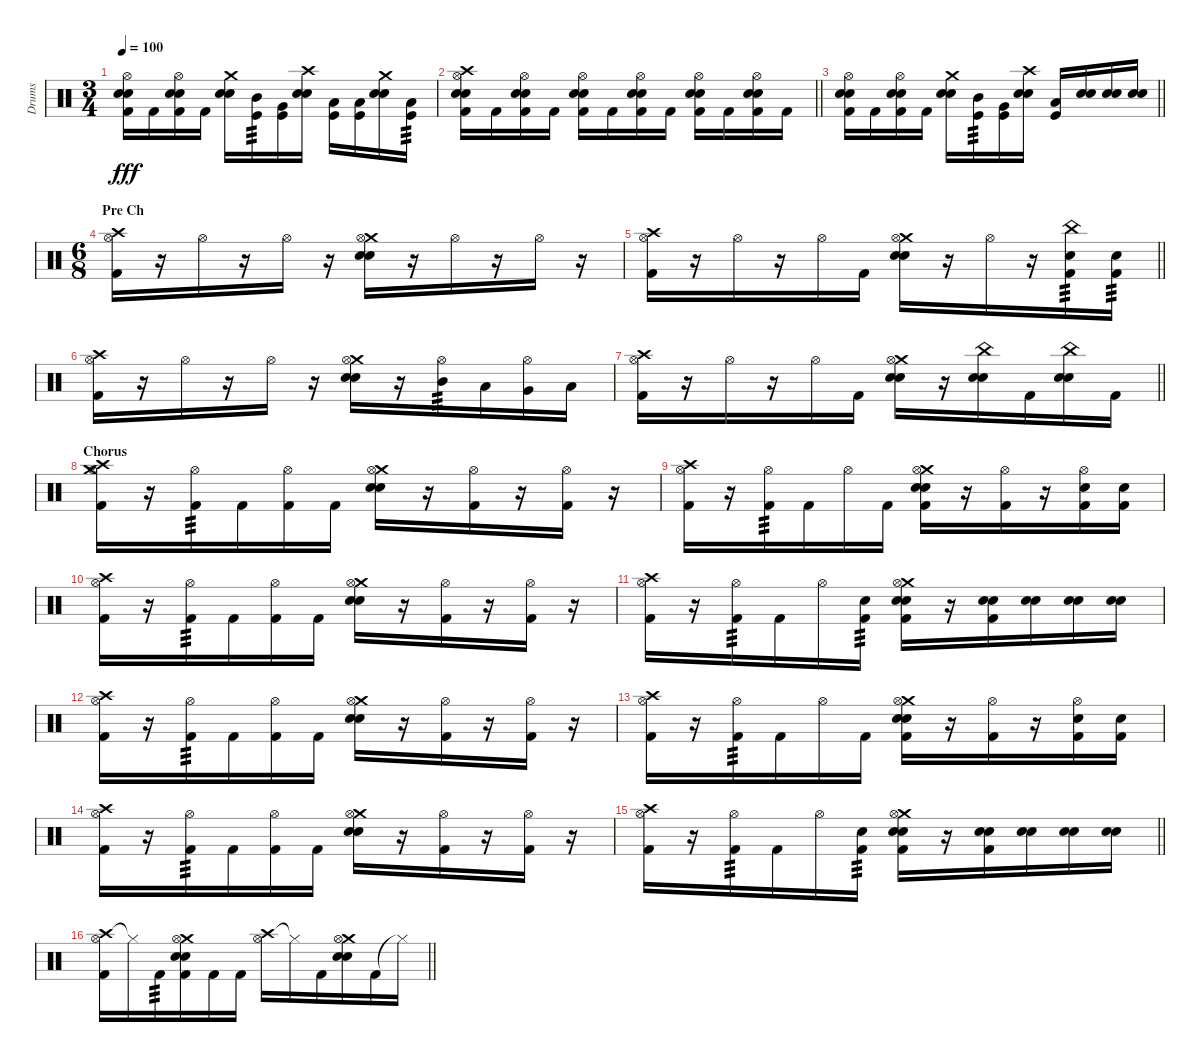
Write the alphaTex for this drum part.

\track ("Drums" "Drums") {instrument percussion}
\staff {score}
\articulation defaults
\ts (3 4)
\tempo 100
\clef neutral
\ks c
("Hi-Hat (open)" "Snare (hit) 2" "Electric Snare (hit)" "Kick (hit) 2").16{dy fff} "Kick (hit) 2".16 ("Hi-Hat (open)" "Snare (hit) 2" "Electric Snare (hit)" "Kick (hit) 2").16 "Kick (hit) 2".16 ("Crash medium (hit)" "Snare (hit) 2" "Electric Snare (hit)").16 ("Mid Tom (hit)" "Kick (hit)").16{tp 3} ("Very Low Tom (hit)" "Kick (hit)").16 ("Crash high (hit)" "Snare (hit) 2" "Electric Snare (hit)").16 ("Low Tom (hit)" "Kick (hit)").16 ("Low Floor Tom (hit)" "Kick (hit)").16 ("Crash medium (hit)" "Snare (hit) 2" "Electric Snare (hit)").16 ("Low Tom (hit)" "Kick (hit)").16{tp 3} |
\barLineRight lightlight
("Crash high (hit)" "Hi-Hat (open)" "Snare (hit) 2" "Electric Snare (hit)" "Kick (hit) 2").16 "Kick (hit) 2".16 ("Hi-Hat (open)" "Snare (hit) 2" "Electric Snare (hit)" "Kick (hit) 2").16 "Kick (hit) 2".16 ("Hi-Hat (open)" "Snare (hit) 2" "Electric Snare (hit)" "Kick (hit) 2").16 "Kick (hit) 2".16 ("Hi-Hat (open)" "Snare (hit) 2" "Electric Snare (hit)" "Kick (hit) 2").16 "Kick (hit) 2".16 ("Hi-Hat (open)" "Snare (hit) 2" "Electric Snare (hit)" "Kick (hit) 2").16 "Kick (hit) 2".16 ("Hi-Hat (open)" "Snare (hit) 2" "Electric Snare (hit)" "Kick (hit) 2").16 "Kick (hit) 2".16 |
\barLineRight lightlight
("Hi-Hat (open)" "Snare (hit) 2" "Electric Snare (hit)" "Kick (hit) 2").16 "Kick (hit) 2".16 ("Hi-Hat (open)" "Snare (hit) 2" "Electric Snare (hit)" "Kick (hit) 2").16 "Kick (hit) 2".16 ("Crash medium (hit)" "Snare (hit) 2" "Electric Snare (hit)").16 ("Mid Tom (hit)" "Kick (hit)").16{tp 3} ("Very Low Tom (hit)" "Kick (hit)").16 ("Crash high (hit)" "Snare (hit) 2" "Electric Snare (hit)").16 ("Low Tom (hit)" "Kick (hit)").16 ("Snare (hit) 2" "Electric Snare (hit)").16 ("Snare (hit) 2" "Electric Snare (hit)").16 ("Snare (hit) 2" "Electric Snare (hit)").16 |
\ts (6 8)
\section ("" "Pre Ch")
("Crash high (hit)" "Hi-Hat (open)" "Kick (hit) 2").16 r.16 "Hi-Hat (open)".16 r.16 "Hi-Hat (open)".16 r.16 ("Crash medium (hit)" "Hi-Hat (open)" "Snare (hit) 2" "Electric Snare (hit)").16 r.16 "Hi-Hat (open)".16 r.16 "Hi-Hat (open)".16 r.16 |
\barLineRight lightlight
("Crash high (hit)" "Hi-Hat (open)" "Kick (hit) 2").16 r.16 "Hi-Hat (open)".16 r.16 "Hi-Hat (open)".16 "Kick (hit) 2".16 ("Crash medium (hit)" "Hi-Hat (open)" "Snare (hit) 2" "Electric Snare (hit)").16 r.16 "Hi-Hat (open)".16 r.16 ("China (hit)" "Electric Snare (hit)" "Kick (hit) 2").16{tp 3} ("Electric Snare (hit)" "Kick (hit) 2").16{tp 3} |
("Crash high (hit)" "Hi-Hat (open)" "Kick (hit) 2").16 r.16 "Hi-Hat (open)".16 r.16 "Hi-Hat (open)".16 r.16 ("Crash medium (hit)" "Hi-Hat (open)" "Snare (hit) 2" "Electric Snare (hit)").16 r.16 ("Hi-Hat (open)" "Mid Tom (hit)").16{tp 3} "Low Tom (hit)".16 ("Hi-Hat (open)" "Very Low Tom (hit)").16 "Low Floor Tom (hit)".16 |
\barLineRight lightlight
("Crash high (hit)" "Hi-Hat (open)" "Kick (hit) 2").16 r.16 "Hi-Hat (open)".16 r.16 "Hi-Hat (open)".16 "Kick (hit) 2".16 ("Crash medium (hit)" "Hi-Hat (open)" "Snare (hit) 2" "Electric Snare (hit)").16 r.16 ("China (hit)" "Snare (hit) 2" "Electric Snare (hit)").16 "Kick (hit) 2".16 ("China (hit)" "Snare (hit) 2" "Electric Snare (hit)").16 "Kick (hit) 2".16 |
\section ("" "Chorus")
("Crash high (hit)" "Hi-Hat (open)" "Crash medium (hit)" "Kick (hit) 2").16 r.16 ("Hi-Hat (open)" "Kick (hit) 2").16{tp 3} "Kick (hit) 2".16 ("Hi-Hat (open)" "Kick (hit) 2").16 "Kick (hit) 2".16 ("Crash medium (hit)" "Hi-Hat (open)" "Snare (hit) 2" "Electric Snare (hit)").16 r.16 ("Hi-Hat (open)" "Kick (hit) 2").16 r.16 ("Hi-Hat (open)" "Kick (hit) 2").16 r.16 |
("Crash high (hit)" "Hi-Hat (open)" "Kick (hit) 2").16 r.16 ("Hi-Hat (open)" "Kick (hit) 2").16{tp 3} "Kick (hit) 2".16 "Hi-Hat (open)".16 "Kick (hit) 2".16 ("Crash medium (hit)" "Hi-Hat (open)" "Snare (hit) 2" "Electric Snare (hit)" "Kick (hit) 2").16 r.16 ("Hi-Hat (open)" "Kick (hit) 2").16 r.16 ("Hi-Hat (open)" "Electric Snare (hit)" "Kick (hit) 2").16 ("Electric Snare (hit)" "Kick (hit) 2").16 |
("Crash high (hit)" "Hi-Hat (open)" "Kick (hit) 2").16 r.16 ("Hi-Hat (open)" "Kick (hit) 2").16{tp 3} "Kick (hit) 2".16 ("Hi-Hat (open)" "Kick (hit) 2").16 "Kick (hit) 2".16 ("Crash medium (hit)" "Hi-Hat (open)" "Snare (hit) 2" "Electric Snare (hit)").16 r.16 ("Hi-Hat (open)" "Kick (hit) 2").16 r.16 ("Hi-Hat (open)" "Kick (hit) 2").16 r.16 |
("Crash high (hit)" "Hi-Hat (open)" "Kick (hit) 2").16 r.16 ("Hi-Hat (open)" "Kick (hit) 2").16{tp 3} "Kick (hit) 2".16 "Hi-Hat (open)".16 ("Electric Snare (hit)" "Kick (hit) 2").16{tp 3} ("Crash medium (hit)" "Hi-Hat (open)" "Snare (hit) 2" "Electric Snare (hit)" "Kick (hit) 2").16 r.16 ("Snare (hit) 2" "Electric Snare (hit)" "Kick (hit) 2").16 ("Snare (hit) 2" "Electric Snare (hit)").16 ("Snare (hit) 2" "Electric Snare (hit)").16 ("Snare (hit) 2" "Electric Snare (hit)").16 |
("Crash high (hit)" "Hi-Hat (open)" "Kick (hit) 2").16 r.16 ("Hi-Hat (open)" "Kick (hit) 2").16{tp 3} "Kick (hit) 2".16 ("Hi-Hat (open)" "Kick (hit) 2").16 "Kick (hit) 2".16 ("Crash medium (hit)" "Hi-Hat (open)" "Snare (hit) 2" "Electric Snare (hit)").16 r.16 ("Hi-Hat (open)" "Kick (hit) 2").16 r.16 ("Hi-Hat (open)" "Kick (hit) 2").16 r.16 |
("Crash high (hit)" "Hi-Hat (open)" "Kick (hit) 2").16 r.16 ("Hi-Hat (open)" "Kick (hit) 2").16{tp 3} "Kick (hit) 2".16 "Hi-Hat (open)".16 "Kick (hit) 2".16 ("Crash medium (hit)" "Hi-Hat (open)" "Snare (hit) 2" "Electric Snare (hit)" "Kick (hit) 2").16 r.16 ("Hi-Hat (open)" "Kick (hit) 2").16 r.16 ("Hi-Hat (open)" "Electric Snare (hit)" "Kick (hit) 2").16 ("Electric Snare (hit)" "Kick (hit) 2").16 |
("Crash high (hit)" "Hi-Hat (open)" "Kick (hit) 2").16 r.16 ("Hi-Hat (open)" "Kick (hit) 2").16{tp 3} "Kick (hit) 2".16 ("Hi-Hat (open)" "Kick (hit) 2").16 "Kick (hit) 2".16 ("Crash medium (hit)" "Hi-Hat (open)" "Snare (hit) 2" "Electric Snare (hit)").16 r.16 ("Hi-Hat (open)" "Kick (hit) 2").16 r.16 ("Hi-Hat (open)" "Kick (hit) 2").16 r.16 |
\barLineRight lightlight
("Crash high (hit)" "Hi-Hat (open)" "Kick (hit) 2").16 r.16 ("Hi-Hat (open)" "Kick (hit) 2").16{tp 3} "Kick (hit) 2".16 "Hi-Hat (open)".16 ("Electric Snare (hit)" "Kick (hit) 2").16{tp 3} ("Crash medium (hit)" "Hi-Hat (open)" "Snare (hit) 2" "Electric Snare (hit)" "Kick (hit) 2").16 r.16 ("Snare (hit) 2" "Electric Snare (hit)" "Kick (hit) 2").16 ("Snare (hit) 2" "Electric Snare (hit)").16 ("Snare (hit) 2" "Electric Snare (hit)").16 ("Snare (hit) 2" "Electric Snare (hit)").16 |
\barLineRight lightlight
("Crash high (hit)" "Hi-Hat (open)" "Kick (hit) 2").16 "Hi-Hat (closed)"{t}.16 "Kick (hit) 2".16{tp 3} ("Crash medium (hit)" "Hi-Hat (open)" "Snare (hit) 2" "Electric Snare (hit)" "Kick (hit) 2").16 "Kick (hit) 2".16 "Kick (hit) 2".16 ("Crash high (hit)" "Hi-Hat (open)").16 "Hi-Hat (closed)"{t}.16 "Kick (hit) 2".16 ("Crash medium (hit)" "Hi-Hat (open)" "Snare (hit) 2" "Electric Snare (hit)").16 "Kick (hit) 2".16 "Hi-Hat (closed)"{t}.16
